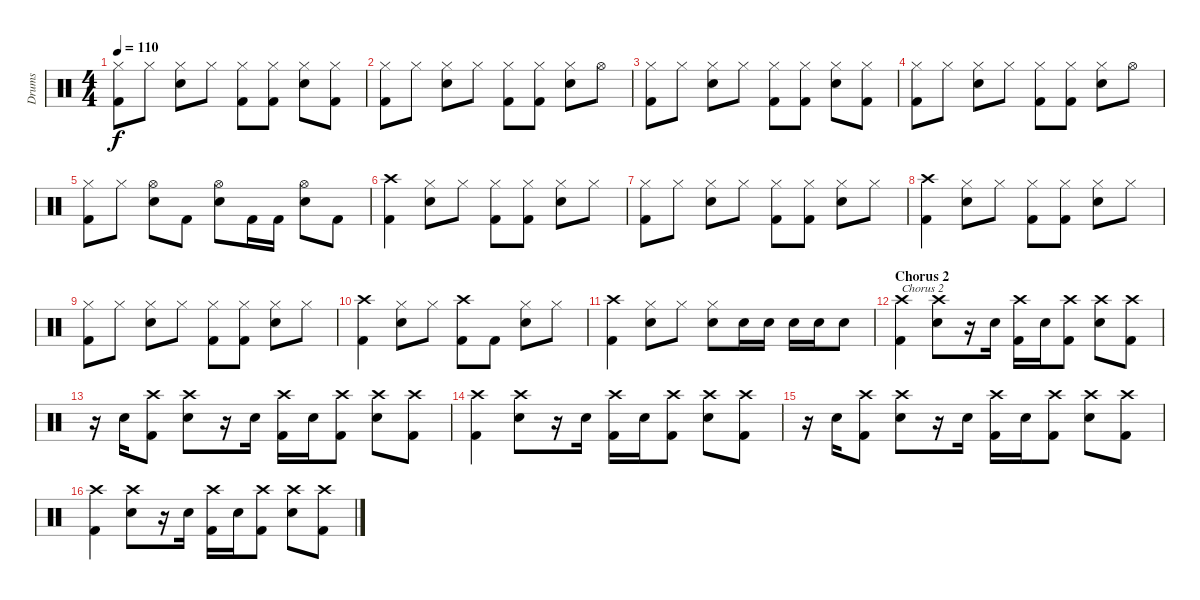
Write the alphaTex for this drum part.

\track ("Drums" "Drums") {instrument percussion}
\staff {score}
\articulation defaults
\ts (4 4)
\tempo 110
\clef neutral
\ks c
("Hi-Hat (closed)" "Kick (hit) 2").8{dy f} "Hi-Hat (closed)".8 ("Hi-Hat (closed)" "Electric Snare (hit)").8 "Hi-Hat (closed)".8 ("Hi-Hat (closed)" "Kick (hit) 2").8 ("Hi-Hat (closed)" "Kick (hit) 2").8 ("Hi-Hat (closed)" "Electric Snare (hit)").8 ("Hi-Hat (closed)" "Kick (hit) 2").8 |
("Hi-Hat (closed)" "Kick (hit) 2").8 "Hi-Hat (closed)".8 ("Hi-Hat (closed)" "Electric Snare (hit)").8 "Hi-Hat (closed)".8 ("Hi-Hat (closed)" "Kick (hit) 2").8 ("Hi-Hat (closed)" "Kick (hit) 2").8 ("Hi-Hat (closed)" "Electric Snare (hit)").8 "Hi-Hat (open)".8 |
("Hi-Hat (closed)" "Kick (hit) 2").8 "Hi-Hat (closed)".8 ("Hi-Hat (closed)" "Electric Snare (hit)").8 "Hi-Hat (closed)".8 ("Hi-Hat (closed)" "Kick (hit) 2").8 ("Hi-Hat (closed)" "Kick (hit) 2").8 ("Hi-Hat (closed)" "Electric Snare (hit)").8 ("Hi-Hat (closed)" "Kick (hit) 2").8 |
("Hi-Hat (closed)" "Kick (hit) 2").8 "Hi-Hat (closed)".8 ("Hi-Hat (closed)" "Electric Snare (hit)").8 "Hi-Hat (closed)".8 ("Hi-Hat (closed)" "Kick (hit) 2").8 ("Hi-Hat (closed)" "Kick (hit) 2").8 ("Hi-Hat (closed)" "Electric Snare (hit)").8 "Hi-Hat (open)".8 |
("Hi-Hat (closed)" "Kick (hit) 2").8 "Hi-Hat (closed)".8 ("Hi-Hat (open)" "Electric Snare (hit)").8 "Kick (hit) 2".8 ("Hi-Hat (open)" "Electric Snare (hit)").8 "Kick (hit) 2".16 "Kick (hit) 2".16 ("Hi-Hat (open)" "Electric Snare (hit)").8 "Kick (hit) 2".8 |
("Crash high (hit)" "Kick (hit) 2").4 ("Hi-Hat (closed)" "Electric Snare (hit)").8 "Hi-Hat (closed)".8 ("Hi-Hat (closed)" "Kick (hit) 2").8 ("Hi-Hat (closed)" "Kick (hit) 2").8 ("Hi-Hat (closed)" "Electric Snare (hit)").8 "Hi-Hat (closed)".8 |
("Hi-Hat (closed)" "Kick (hit) 2").8 "Hi-Hat (closed)".8 ("Hi-Hat (closed)" "Electric Snare (hit)").8 "Hi-Hat (closed)".8 ("Hi-Hat (closed)" "Kick (hit) 2").8 ("Hi-Hat (closed)" "Kick (hit) 2").8 ("Hi-Hat (closed)" "Electric Snare (hit)").8 "Hi-Hat (closed)".8 |
("Crash high (hit)" "Kick (hit) 2").4 ("Hi-Hat (closed)" "Electric Snare (hit)").8 "Hi-Hat (closed)".8 ("Hi-Hat (closed)" "Kick (hit) 2").8 ("Hi-Hat (closed)" "Kick (hit) 2").8 ("Hi-Hat (closed)" "Electric Snare (hit)").8 "Hi-Hat (closed)".8 |
("Hi-Hat (closed)" "Kick (hit) 2").8 "Hi-Hat (closed)".8 ("Hi-Hat (closed)" "Electric Snare (hit)").8 "Hi-Hat (closed)".8 ("Hi-Hat (closed)" "Kick (hit) 2").8 ("Hi-Hat (closed)" "Kick (hit) 2").8 ("Hi-Hat (closed)" "Electric Snare (hit)").8 "Hi-Hat (closed)".8 |
("Crash high (hit)" "Kick (hit) 2").4 ("Hi-Hat (closed)" "Electric Snare (hit)").8 "Hi-Hat (closed)".8 ("Crash high (hit)" "Kick (hit) 2").8 "Kick (hit) 2".8 ("Hi-Hat (closed)" "Electric Snare (hit)").8 "Hi-Hat (closed)".8 |
("Crash high (hit)" "Kick (hit) 2").4 ("Hi-Hat (closed)" "Electric Snare (hit)").8 "Hi-Hat (closed)".8 ("Hi-Hat (closed)" "Electric Snare (hit)").8 "Electric Snare (hit)".16 "Electric Snare (hit)".16 "Electric Snare (hit)".16 "Electric Snare (hit)".16 "Electric Snare (hit)".8 |
\section ("" "Chorus 2")
("Crash high (hit)" "Kick (hit) 2").4{txt "Chorus 2"} ("Crash high (hit)" "Electric Snare (hit)").8 r.16 "Electric Snare (hit)".16 ("Crash high (hit)" "Kick (hit) 2").16 "Electric Snare (hit)".16 ("Crash high (hit)" "Kick (hit) 2").8 ("Crash high (hit)" "Electric Snare (hit)").8 ("Crash high (hit)" "Kick (hit) 2").8 |
r.16 "Electric Snare (hit)".16 ("Crash high (hit)" "Kick (hit) 2").8 ("Crash high (hit)" "Electric Snare (hit)").8 r.16 "Electric Snare (hit)".16 ("Crash high (hit)" "Kick (hit) 2").16 "Electric Snare (hit)".16 ("Crash high (hit)" "Kick (hit) 2").8 ("Crash high (hit)" "Electric Snare (hit)").8 ("Crash high (hit)" "Kick (hit) 2").8 |
("Crash high (hit)" "Kick (hit) 2").4 ("Crash high (hit)" "Electric Snare (hit)").8 r.16 "Electric Snare (hit)".16 ("Crash high (hit)" "Kick (hit) 2").16 "Electric Snare (hit)".16 ("Crash high (hit)" "Kick (hit) 2").8 ("Crash high (hit)" "Electric Snare (hit)").8 ("Crash high (hit)" "Kick (hit) 2").8 |
r.16 "Electric Snare (hit)".16 ("Crash high (hit)" "Kick (hit) 2").8 ("Crash high (hit)" "Electric Snare (hit)").8 r.16 "Electric Snare (hit)".16 ("Crash high (hit)" "Kick (hit) 2").16 "Electric Snare (hit)".16 ("Crash high (hit)" "Kick (hit) 2").8 ("Crash high (hit)" "Electric Snare (hit)").8 ("Crash high (hit)" "Kick (hit) 2").8 |
("Crash high (hit)" "Kick (hit) 2").4 ("Crash high (hit)" "Electric Snare (hit)").8 r.16 "Electric Snare (hit)".16 ("Crash high (hit)" "Kick (hit) 2").16 "Electric Snare (hit)".16 ("Crash high (hit)" "Kick (hit) 2").8 ("Crash high (hit)" "Electric Snare (hit)").8 ("Crash high (hit)" "Kick (hit) 2").8
